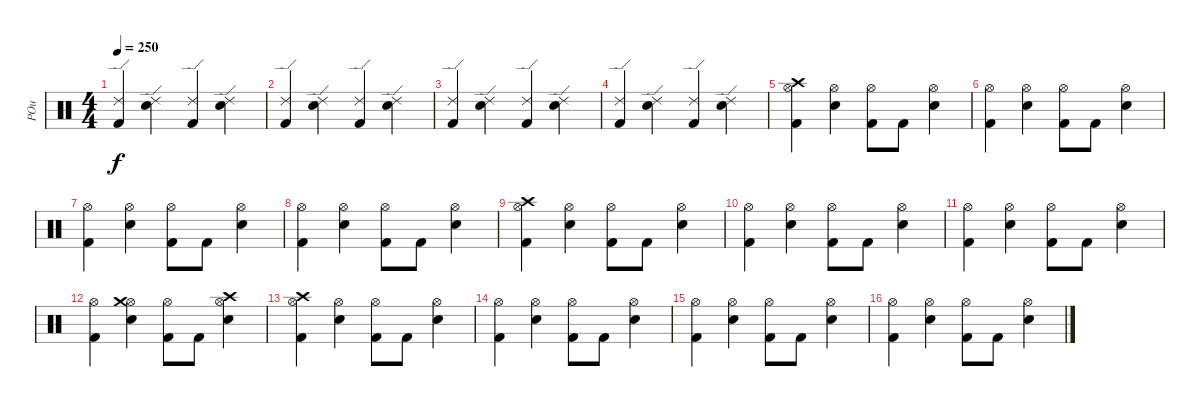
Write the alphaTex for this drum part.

\track ("POu" "POu") {instrument percussion}
\staff {score}
\articulation defaults
\ts (4 4)
\tempo 250
\clef neutral
\ks c
("Kick (hit) 2" "Ride (edge) 2").4{dy f} ("Electric Snare (hit)" "Ride (edge) 2").4 ("Kick (hit) 2" "Ride (edge) 2").4 ("Electric Snare (hit)" "Ride (edge) 2").4 |
("Kick (hit) 2" "Ride (edge) 2").4 ("Electric Snare (hit)" "Ride (edge) 2").4 ("Kick (hit) 2" "Ride (edge) 2").4 ("Electric Snare (hit)" "Ride (edge) 2").4 |
("Kick (hit) 2" "Ride (edge) 2").4 ("Electric Snare (hit)" "Ride (edge) 2").4 ("Kick (hit) 2" "Ride (edge) 2").4 ("Electric Snare (hit)" "Ride (edge) 2").4 |
("Kick (hit) 2" "Ride (edge) 2").4 ("Electric Snare (hit)" "Ride (edge) 2").4 ("Kick (hit) 2" "Ride (edge) 2").4 ("Electric Snare (hit)" "Ride (edge) 2").4 |
("Kick (hit) 2" "Hi-Hat (open)" "Crash high (hit)").4 ("Electric Snare (hit)" "Hi-Hat (open)").4 ("Kick (hit) 2" "Hi-Hat (open)").8 "Kick (hit) 2".8 ("Electric Snare (hit)" "Hi-Hat (open)").4 |
("Kick (hit) 2" "Hi-Hat (open)").4 ("Electric Snare (hit)" "Hi-Hat (open)").4 ("Kick (hit) 2" "Hi-Hat (open)").8 "Kick (hit) 2".8 ("Electric Snare (hit)" "Hi-Hat (open)").4 |
("Kick (hit) 2" "Hi-Hat (open)").4 ("Electric Snare (hit)" "Hi-Hat (open)").4 ("Kick (hit) 2" "Hi-Hat (open)").8 "Kick (hit) 2".8 ("Electric Snare (hit)" "Hi-Hat (open)").4 |
("Kick (hit) 2" "Hi-Hat (open)").4 ("Electric Snare (hit)" "Hi-Hat (open)").4 ("Kick (hit) 2" "Hi-Hat (open)").8 "Kick (hit) 2".8 ("Electric Snare (hit)" "Hi-Hat (open)").4 |
("Kick (hit) 2" "Hi-Hat (open)" "Crash high (hit)").4 ("Electric Snare (hit)" "Hi-Hat (open)").4 ("Kick (hit) 2" "Hi-Hat (open)").8 "Kick (hit) 2".8 ("Electric Snare (hit)" "Hi-Hat (open)").4 |
("Kick (hit) 2" "Hi-Hat (open)").4 ("Electric Snare (hit)" "Hi-Hat (open)").4 ("Kick (hit) 2" "Hi-Hat (open)").8 "Kick (hit) 2".8 ("Electric Snare (hit)" "Hi-Hat (open)").4 |
("Kick (hit) 2" "Hi-Hat (open)").4 ("Electric Snare (hit)" "Hi-Hat (open)").4 ("Kick (hit) 2" "Hi-Hat (open)").8 "Kick (hit) 2".8 ("Electric Snare (hit)" "Hi-Hat (open)").4 |
("Kick (hit) 2" "Hi-Hat (open)").4 ("Electric Snare (hit)" "Hi-Hat (open)" "Crash medium (hit)").4 ("Kick (hit) 2" "Hi-Hat (open)").8 "Kick (hit) 2".8 ("Electric Snare (hit)" "Hi-Hat (open)" "Crash high (hit)").4 |
("Kick (hit) 2" "Hi-Hat (open)" "Crash high (hit)").4 ("Electric Snare (hit)" "Hi-Hat (open)").4 ("Kick (hit) 2" "Hi-Hat (open)").8 "Kick (hit) 2".8 ("Electric Snare (hit)" "Hi-Hat (open)").4 |
("Kick (hit) 2" "Hi-Hat (open)").4 ("Electric Snare (hit)" "Hi-Hat (open)").4 ("Kick (hit) 2" "Hi-Hat (open)").8 "Kick (hit) 2".8 ("Electric Snare (hit)" "Hi-Hat (open)").4 |
("Kick (hit) 2" "Hi-Hat (open)").4 ("Electric Snare (hit)" "Hi-Hat (open)").4 ("Kick (hit) 2" "Hi-Hat (open)").8 "Kick (hit) 2".8 ("Electric Snare (hit)" "Hi-Hat (open)").4 |
("Kick (hit) 2" "Hi-Hat (open)").4 ("Electric Snare (hit)" "Hi-Hat (open)").4 ("Kick (hit) 2" "Hi-Hat (open)").8 "Kick (hit) 2".8 ("Electric Snare (hit)" "Hi-Hat (open)").4
